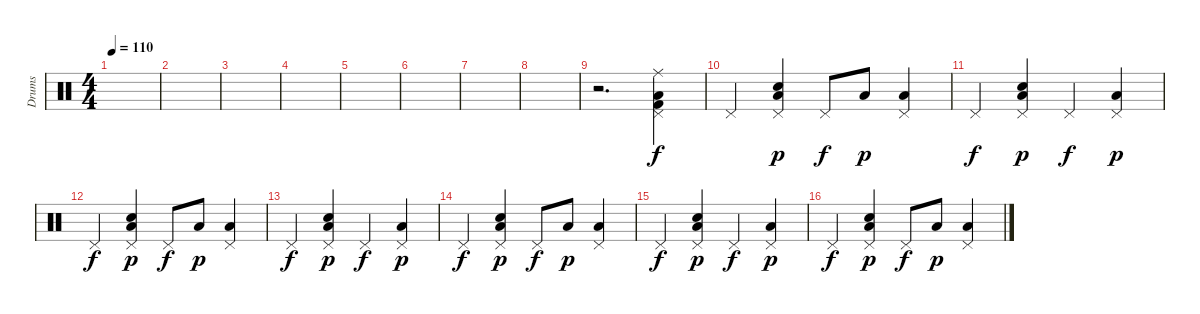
\track ("Drums" "Drums") {instrument percussion}
\staff {score}
\articulation defaults
\ts (4 4)
\tempo 110
\clef neutral
\ks c
|
|
|
|
|
|
|
|
r.2{d} ("Ride (middle)" "Pedal Hi-Hat (hit)" "Kick (hit) 2" "Low Floor Tom (hit)").4 |
"Pedal Hi-Hat (hit)".4{dy f} ("Pedal Hi-Hat (hit)" "Snare (hit) 2" "Low Floor Tom (hit)").4{dy p} "Pedal Hi-Hat (hit)".8{dy f} "Low Floor Tom (hit)".8{dy p} ("Pedal Hi-Hat (hit)" "Low Floor Tom (hit)").4 |
"Pedal Hi-Hat (hit)".4{dy f} ("Pedal Hi-Hat (hit)" "Snare (hit) 2" "Low Floor Tom (hit)").4{dy p} "Pedal Hi-Hat (hit)".4{dy f} ("Pedal Hi-Hat (hit)" "Low Floor Tom (hit)").4{dy p} |
"Pedal Hi-Hat (hit)".4{dy f} ("Pedal Hi-Hat (hit)" "Snare (hit) 2" "Low Floor Tom (hit)").4{dy p} "Pedal Hi-Hat (hit)".8{dy f} "Low Floor Tom (hit)".8{dy p} ("Pedal Hi-Hat (hit)" "Low Floor Tom (hit)").4 |
"Pedal Hi-Hat (hit)".4{dy f} ("Pedal Hi-Hat (hit)" "Snare (hit) 2" "Low Floor Tom (hit)").4{dy p} "Pedal Hi-Hat (hit)".4{dy f} ("Pedal Hi-Hat (hit)" "Low Floor Tom (hit)").4{dy p} |
"Pedal Hi-Hat (hit)".4{dy f} ("Pedal Hi-Hat (hit)" "Snare (hit) 2" "Low Floor Tom (hit)").4{dy p} "Pedal Hi-Hat (hit)".8{dy f} "Low Floor Tom (hit)".8{dy p} ("Pedal Hi-Hat (hit)" "Low Floor Tom (hit)").4 |
"Pedal Hi-Hat (hit)".4{dy f} ("Pedal Hi-Hat (hit)" "Snare (hit) 2" "Low Floor Tom (hit)").4{dy p} "Pedal Hi-Hat (hit)".4{dy f} ("Pedal Hi-Hat (hit)" "Low Floor Tom (hit)").4{dy p} |
"Pedal Hi-Hat (hit)".4{dy f} ("Pedal Hi-Hat (hit)" "Snare (hit) 2" "Low Floor Tom (hit)").4{dy p} "Pedal Hi-Hat (hit)".8{dy f} "Low Floor Tom (hit)".8{dy p} ("Pedal Hi-Hat (hit)" "Low Floor Tom (hit)").4
